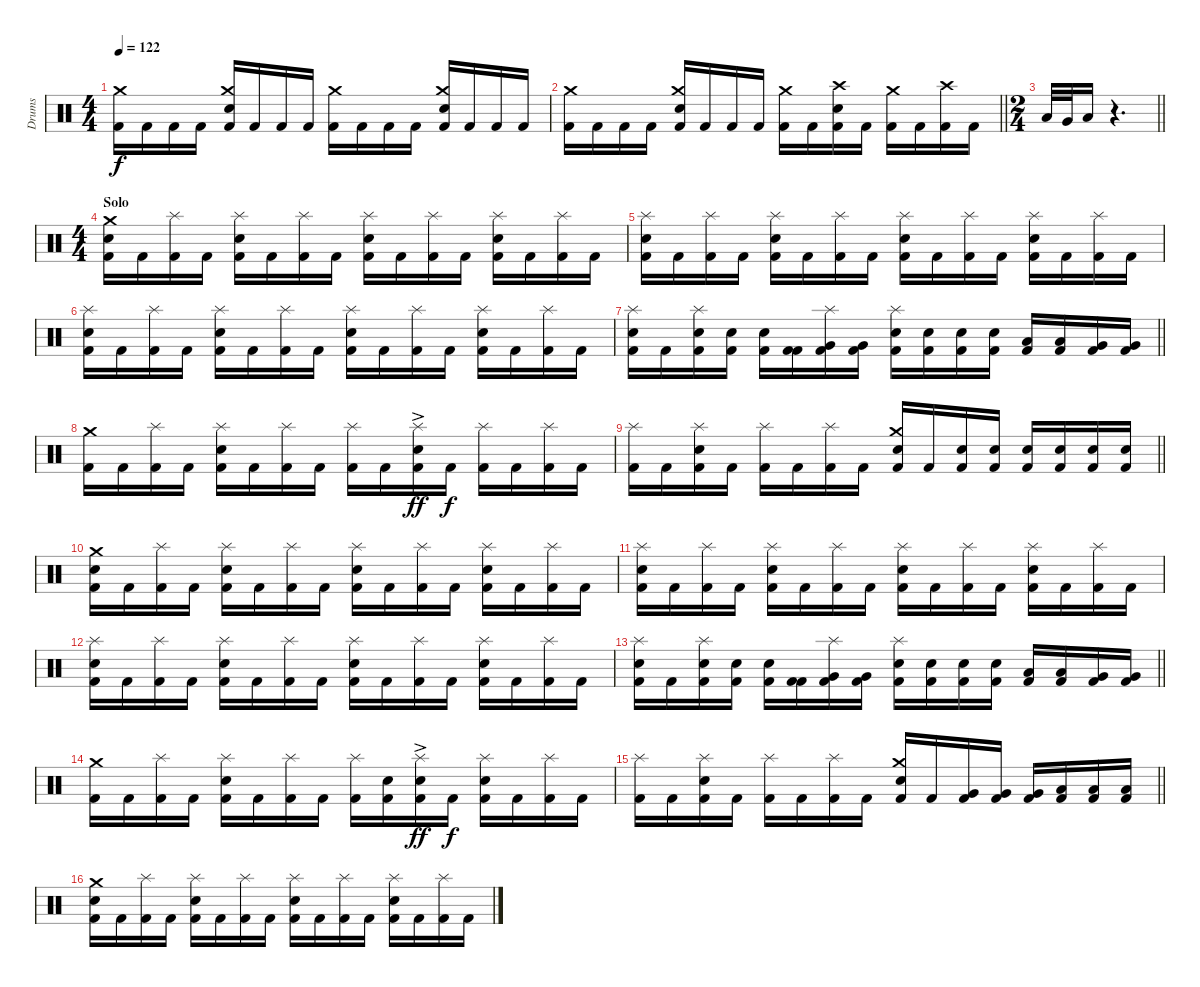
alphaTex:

\track ("Drums" "Drums") {instrument percussion}
\staff {score}
\articulation defaults
\ts (4 4)
\tempo 122
\clef neutral
\ks c
("Kick (hit) 2" "Crash medium (hit)").16{dy f} "Kick (hit) 2".16 "Kick (hit) 2".16 "Kick (hit) 2".16 ("Kick (hit) 2" "Snare (hit) 2" "Crash medium (hit)").16 "Kick (hit) 2".16 "Kick (hit) 2".16 "Kick (hit) 2".16 ("Kick (hit) 2" "Crash medium (hit)").16 "Kick (hit) 2".16 "Kick (hit) 2".16 "Kick (hit) 2".16 ("Kick (hit) 2" "Snare (hit) 2" "Crash medium (hit)").16 "Kick (hit) 2".16 "Kick (hit) 2".16 "Kick (hit) 2".16 |
\barLineRight lightlight
("Kick (hit) 2" "Crash medium (hit)").16 "Kick (hit) 2".16 "Kick (hit) 2".16 "Kick (hit) 2".16 ("Kick (hit) 2" "Snare (hit) 2" "Crash medium (hit)").16 "Kick (hit) 2".16 "Kick (hit) 2".16 "Kick (hit) 2".16 ("Kick (hit) 2" "Crash medium (hit)").16 "Kick (hit) 2".16 ("Kick (hit) 2" "Snare (hit) 2" "Crash high (hit)").16 "Kick (hit) 2".16 ("Kick (hit) 2" "Crash medium (hit)").16 "Kick (hit) 2".16 ("Kick (hit) 2" "Crash high (hit)").16 "Kick (hit) 2".16 |
\ts (2 4)
\section ("" "")
\barLineRight lightlight "Low Tom (hit)".32 "Very Low Tom (hit)".32 "Low Floor Tom (hit)".16
r.4{d} |
\ts (4 4)
\section ("" "Solo")
("Kick (hit) 2" "Snare (hit) 2" "Crash medium (hit)").16 "Kick (hit) 2".16 ("Kick (hit) 2" "Splash (hit)").16 "Kick (hit) 2".16 ("Kick (hit) 2" "Snare (hit) 2" "Splash (hit)").16 "Kick (hit) 2".16 ("Kick (hit) 2" "Splash (hit)").16 "Kick (hit) 2".16 ("Kick (hit) 2" "Snare (hit) 2" "Splash (hit)").16 "Kick (hit) 2".16 ("Kick (hit) 2" "Splash (hit)").16 "Kick (hit) 2".16 ("Kick (hit) 2" "Snare (hit) 2" "Splash (hit)").16 "Kick (hit) 2".16 ("Kick (hit) 2" "Splash (hit)").16 "Kick (hit) 2".16 |
("Kick (hit) 2" "Snare (hit) 2" "Splash (hit)").16 "Kick (hit) 2".16 ("Kick (hit) 2" "Splash (hit)").16 "Kick (hit) 2".16 ("Kick (hit) 2" "Snare (hit) 2" "Splash (hit)").16 "Kick (hit) 2".16 ("Kick (hit) 2" "Splash (hit)").16 "Kick (hit) 2".16 ("Kick (hit) 2" "Snare (hit) 2" "Splash (hit)").16 "Kick (hit) 2".16 ("Kick (hit) 2" "Splash (hit)").16 "Kick (hit) 2".16 ("Kick (hit) 2" "Snare (hit) 2" "Splash (hit)").16 "Kick (hit) 2".16 ("Kick (hit) 2" "Splash (hit)").16 "Kick (hit) 2".16 |
("Kick (hit) 2" "Snare (hit) 2" "Splash (hit)").16 "Kick (hit) 2".16 ("Kick (hit) 2" "Splash (hit)").16 "Kick (hit) 2".16 ("Kick (hit) 2" "Snare (hit) 2" "Splash (hit)").16 "Kick (hit) 2".16 ("Kick (hit) 2" "Splash (hit)").16 "Kick (hit) 2".16 ("Kick (hit) 2" "Snare (hit) 2" "Splash (hit)").16 "Kick (hit) 2".16 ("Kick (hit) 2" "Splash (hit)").16 "Kick (hit) 2".16 ("Kick (hit) 2" "Snare (hit) 2" "Splash (hit)").16 "Kick (hit) 2".16 ("Kick (hit) 2" "Splash (hit)").16 "Kick (hit) 2".16 |
\barLineRight lightlight
("Kick (hit) 2" "Snare (hit) 2" "Splash (hit)").16 "Kick (hit) 2".16 ("Kick (hit) 2" "Snare (hit) 2" "Splash (hit)").16 ("Kick (hit) 2" "Snare (hit) 2").16 ("Kick (hit) 2" "Snare (hit) 2").16 ("Kick (hit) 2" "Kick (hit) 2").16 ("Kick (hit) 2" "Very Low Tom (hit)" "Splash (hit)").16 ("Kick (hit) 2" "Very Low Tom (hit)").16 ("Kick (hit) 2" "Snare (hit) 2" "Splash (hit)").16 ("Kick (hit) 2" "Snare (hit) 2").16 ("Kick (hit) 2" "Snare (hit) 2").16 ("Kick (hit) 2" "Snare (hit) 2").16 ("Kick (hit) 2" "Low Tom (hit)").16 ("Kick (hit) 2" "Low Tom (hit)").16 ("Kick (hit) 2" "Very Low Tom (hit)").16 ("Kick (hit) 2" "Very Low Tom (hit)").16 |
\section ("" "")
("Kick (hit) 2" "Crash medium (hit)").16 "Kick (hit) 2".16 ("Kick (hit) 2" "Splash (hit)").16 "Kick (hit) 2".16 ("Kick (hit) 2" "Snare (hit) 2" "Splash (hit)").16 "Kick (hit) 2".16 ("Kick (hit) 2" "Splash (hit)").16 "Kick (hit) 2".16 ("Kick (hit) 2" "Splash (hit)").16 "Kick (hit) 2".16 ("Kick (hit) 2" "Snare (hit) 2"{ac} "Splash (hit)").16{dy ff} "Kick (hit) 2".16{dy f} ("Kick (hit) 2" "Splash (hit)").16 "Kick (hit) 2".16 ("Kick (hit) 2" "Splash (hit)").16 "Kick (hit) 2".16 |
\barLineRight lightlight
("Kick (hit) 2" "Splash (hit)").16 "Kick (hit) 2".16 ("Kick (hit) 2" "Snare (hit) 2" "Splash (hit)").16 "Kick (hit) 2".16 ("Kick (hit) 2" "Splash (hit)").16 "Kick (hit) 2".16 ("Kick (hit) 2" "Splash (hit)").16 "Kick (hit) 2".16 ("Kick (hit) 2" "Snare (hit) 2" "Crash medium (hit)").16 "Kick (hit) 2".16 ("Kick (hit) 2" "Snare (hit) 2").16 ("Kick (hit) 2" "Snare (hit) 2").16 ("Kick (hit) 2" "Snare (hit) 2").16 ("Kick (hit) 2" "Snare (hit) 2").16 ("Kick (hit) 2" "Snare (hit) 2").16 ("Kick (hit) 2" "Snare (hit) 2").16 |
\section ("" "")
("Kick (hit) 2" "Snare (hit) 2" "Crash medium (hit)").16 "Kick (hit) 2".16 ("Kick (hit) 2" "Splash (hit)").16 "Kick (hit) 2".16 ("Kick (hit) 2" "Snare (hit) 2" "Splash (hit)").16 "Kick (hit) 2".16 ("Kick (hit) 2" "Splash (hit)").16 "Kick (hit) 2".16 ("Kick (hit) 2" "Snare (hit) 2" "Splash (hit)").16 "Kick (hit) 2".16 ("Kick (hit) 2" "Splash (hit)").16 "Kick (hit) 2".16 ("Kick (hit) 2" "Snare (hit) 2" "Splash (hit)").16 "Kick (hit) 2".16 ("Kick (hit) 2" "Splash (hit)").16 "Kick (hit) 2".16 |
("Kick (hit) 2" "Snare (hit) 2" "Splash (hit)").16 "Kick (hit) 2".16 ("Kick (hit) 2" "Splash (hit)").16 "Kick (hit) 2".16 ("Kick (hit) 2" "Snare (hit) 2" "Splash (hit)").16 "Kick (hit) 2".16 ("Kick (hit) 2" "Splash (hit)").16 "Kick (hit) 2".16 ("Kick (hit) 2" "Snare (hit) 2" "Splash (hit)").16 "Kick (hit) 2".16 ("Kick (hit) 2" "Splash (hit)").16 "Kick (hit) 2".16 ("Kick (hit) 2" "Snare (hit) 2" "Splash (hit)").16 "Kick (hit) 2".16 ("Kick (hit) 2" "Splash (hit)").16 "Kick (hit) 2".16 |
("Kick (hit) 2" "Snare (hit) 2" "Splash (hit)").16 "Kick (hit) 2".16 ("Kick (hit) 2" "Splash (hit)").16 "Kick (hit) 2".16 ("Kick (hit) 2" "Snare (hit) 2" "Splash (hit)").16 "Kick (hit) 2".16 ("Kick (hit) 2" "Splash (hit)").16 "Kick (hit) 2".16 ("Kick (hit) 2" "Snare (hit) 2" "Splash (hit)").16 "Kick (hit) 2".16 ("Kick (hit) 2" "Splash (hit)").16 "Kick (hit) 2".16 ("Kick (hit) 2" "Snare (hit) 2" "Splash (hit)").16 "Kick (hit) 2".16 ("Kick (hit) 2" "Splash (hit)").16 "Kick (hit) 2".16 |
\barLineRight lightlight
("Kick (hit) 2" "Snare (hit) 2" "Splash (hit)").16 "Kick (hit) 2".16 ("Kick (hit) 2" "Snare (hit) 2" "Splash (hit)").16 ("Kick (hit) 2" "Snare (hit) 2").16 ("Kick (hit) 2" "Snare (hit) 2").16 ("Kick (hit) 2" "Kick (hit) 2").16 ("Kick (hit) 2" "Very Low Tom (hit)" "Splash (hit)").16 ("Kick (hit) 2" "Very Low Tom (hit)").16 ("Kick (hit) 2" "Snare (hit) 2" "Splash (hit)").16 ("Kick (hit) 2" "Snare (hit) 2").16 ("Kick (hit) 2" "Snare (hit) 2").16 ("Kick (hit) 2" "Snare (hit) 2").16 ("Kick (hit) 2" "Low Tom (hit)").16 ("Kick (hit) 2" "Low Tom (hit)").16 ("Kick (hit) 2" "Very Low Tom (hit)").16 ("Kick (hit) 2" "Very Low Tom (hit)").16 |
\section ("" "")
("Kick (hit) 2" "Crash medium (hit)").16 "Kick (hit) 2".16 ("Kick (hit) 2" "Splash (hit)").16 "Kick (hit) 2".16 ("Kick (hit) 2" "Snare (hit) 2" "Splash (hit)").16 "Kick (hit) 2".16 ("Kick (hit) 2" "Splash (hit)").16 "Kick (hit) 2".16 ("Kick (hit) 2" "Splash (hit)").16 ("Kick (hit) 2" "Snare (hit) 2").16 ("Kick (hit) 2" "Snare (hit) 2"{ac} "Splash (hit)").16{dy ff} "Kick (hit) 2".16{dy f} ("Kick (hit) 2" "Snare (hit) 2" "Splash (hit)").16 "Kick (hit) 2".16 ("Kick (hit) 2" "Splash (hit)").16 "Kick (hit) 2".16 |
\barLineRight lightlight
("Kick (hit) 2" "Splash (hit)").16 "Kick (hit) 2".16 ("Kick (hit) 2" "Snare (hit) 2" "Splash (hit)").16 "Kick (hit) 2".16 ("Kick (hit) 2" "Splash (hit)").16 "Kick (hit) 2".16 ("Kick (hit) 2" "Splash (hit)").16 "Kick (hit) 2".16 ("Kick (hit) 2" "Snare (hit) 2" "Crash medium (hit)").16 "Kick (hit) 2".16 ("Kick (hit) 2" "Very Low Tom (hit)").16 ("Kick (hit) 2" "Very Low Tom (hit)").16 ("Kick (hit) 2" "Very Low Tom (hit)").16 ("Kick (hit) 2" "Low Floor Tom (hit)").16 ("Kick (hit) 2" "Low Floor Tom (hit)").16 ("Kick (hit) 2" "Low Floor Tom (hit)").16 |
\section ("" "")
("Kick (hit) 2" "Snare (hit) 2" "Crash medium (hit)").16 "Kick (hit) 2".16 ("Kick (hit) 2" "Splash (hit)").16 "Kick (hit) 2".16 ("Kick (hit) 2" "Snare (hit) 2" "Splash (hit)").16 "Kick (hit) 2".16 ("Kick (hit) 2" "Splash (hit)").16 "Kick (hit) 2".16 ("Kick (hit) 2" "Snare (hit) 2" "Splash (hit)").16 "Kick (hit) 2".16 ("Kick (hit) 2" "Splash (hit)").16 "Kick (hit) 2".16 ("Kick (hit) 2" "Snare (hit) 2" "Splash (hit)").16 "Kick (hit) 2".16 ("Kick (hit) 2" "Splash (hit)").16 "Kick (hit) 2".16
